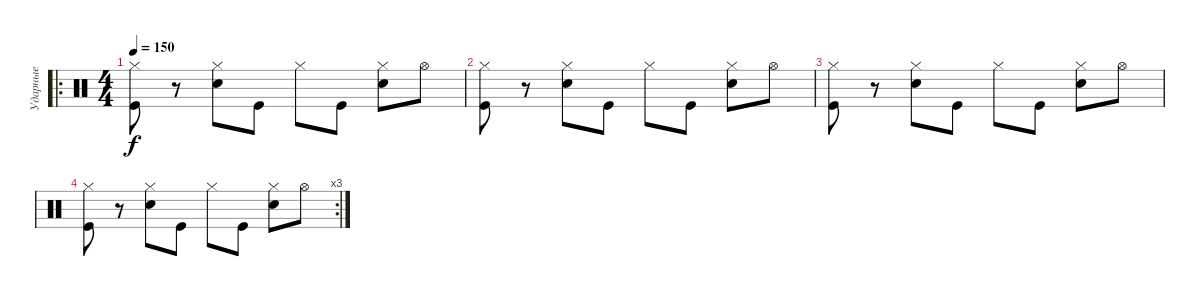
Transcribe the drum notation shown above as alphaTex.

\track ("Ударные" "Ударные") {instrument percussion}
\staff {score}
\articulation defaults
\ro
\ts (4 4)
\tempo 150
\clef neutral
\ks c
("Kick (hit)" "Hi-Hat (closed)").8{dy f} r.8 ("Hand Clap (hit)" "Hi-Hat (closed)").8 "Kick (hit)".8 "Hi-Hat (closed)".8 "Kick (hit)".8 ("Hand Clap (hit)" "Hi-Hat (closed)").8 "Hi-Hat (open)".8 |
("Kick (hit)" "Hi-Hat (closed)").8 r.8 ("Hand Clap (hit)" "Hi-Hat (closed)").8 "Kick (hit)".8 "Hi-Hat (closed)".8 "Kick (hit)".8 ("Hand Clap (hit)" "Hi-Hat (closed)").8 "Hi-Hat (open)".8 |
("Kick (hit)" "Hi-Hat (closed)").8 r.8 ("Hand Clap (hit)" "Hi-Hat (closed)").8 "Kick (hit)".8 "Hi-Hat (closed)".8 "Kick (hit)".8 ("Hand Clap (hit)" "Hi-Hat (closed)").8 "Hi-Hat (open)".8 |
\rc 3
("Kick (hit)" "Hi-Hat (closed)").8 r.8 ("Hand Clap (hit)" "Hi-Hat (closed)").8 "Kick (hit)".8 "Hi-Hat (closed)".8 "Kick (hit)".8 ("Hand Clap (hit)" "Hi-Hat (closed)").8 "Hi-Hat (open)".8
